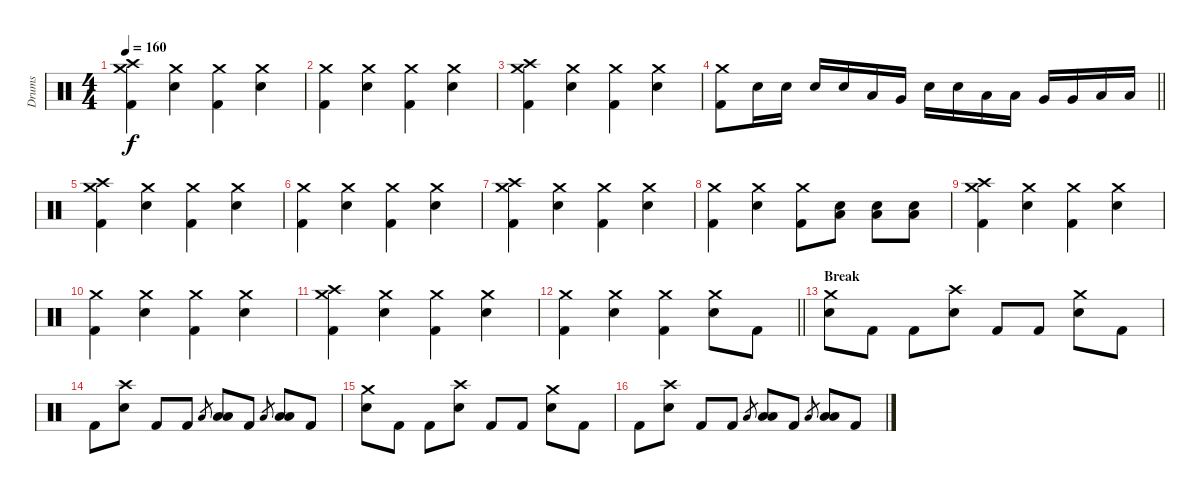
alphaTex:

\track ("Drums" "Drums") {instrument percussion}
\staff {score}
\articulation defaults
\ts (4 4)
\tempo 160
\clef neutral
\ks c
("Kick (hit) 2" "Crash medium (hit)" "Crash high (hit)").4{dy f} ("Electric Snare (hit)" "Crash medium (hit)").4 ("Kick (hit) 2" "Crash medium (hit)").4 ("Electric Snare (hit)" "Crash medium (hit)").4 |
("Kick (hit) 2" "Crash medium (hit)").4 ("Electric Snare (hit)" "Crash medium (hit)").4 ("Kick (hit) 2" "Crash medium (hit)").4 ("Electric Snare (hit)" "Crash medium (hit)").4 |
("Kick (hit) 2" "Crash medium (hit)" "Crash high (hit)").4 ("Electric Snare (hit)" "Crash medium (hit)").4 ("Kick (hit) 2" "Crash medium (hit)").4 ("Electric Snare (hit)" "Crash medium (hit)").4 |
\barLineRight lightlight
("Kick (hit) 2" "Crash medium (hit)").8 "Electric Snare (hit)".16 "Electric Snare (hit)".16 "Electric Snare (hit)".16 "Electric Snare (hit)".16 "Low Tom (hit)".16 "Very Low Tom (hit)".16 "Electric Snare (hit)".16 "Electric Snare (hit)".16 "Low Tom (hit)".16 "Low Tom (hit)".16 "Very Low Tom (hit)".16 "Very Low Tom (hit)".16 "Low Floor Tom (hit)".16 "Low Floor Tom (hit)".16 |
("Kick (hit) 2" "Crash medium (hit)" "Crash high (hit)").4 ("Electric Snare (hit)" "Crash medium (hit)").4 ("Kick (hit) 2" "Crash medium (hit)").4 ("Electric Snare (hit)" "Crash medium (hit)").4 |
("Kick (hit) 2" "Crash medium (hit)").4 ("Electric Snare (hit)" "Crash medium (hit)").4 ("Kick (hit) 2" "Crash medium (hit)").4 ("Electric Snare (hit)" "Crash medium (hit)").4 |
("Kick (hit) 2" "Crash medium (hit)" "Crash high (hit)").4 ("Electric Snare (hit)" "Crash medium (hit)").4 ("Kick (hit) 2" "Crash medium (hit)").4 ("Electric Snare (hit)" "Crash medium (hit)").4 |
("Kick (hit) 2" "Crash medium (hit)").4 ("Electric Snare (hit)" "Crash medium (hit)").4 ("Kick (hit) 2" "Crash medium (hit)").8 ("Electric Snare (hit)" "Low Floor Tom (hit)").8 ("Electric Snare (hit)" "Low Floor Tom (hit)").8 ("Electric Snare (hit)" "Low Floor Tom (hit)").8 |
("Kick (hit) 2" "Crash medium (hit)" "Crash high (hit)").4 ("Electric Snare (hit)" "Crash medium (hit)").4 ("Kick (hit) 2" "Crash medium (hit)").4 ("Electric Snare (hit)" "Crash medium (hit)").4 |
("Kick (hit) 2" "Crash medium (hit)").4 ("Electric Snare (hit)" "Crash medium (hit)").4 ("Kick (hit) 2" "Crash medium (hit)").4 ("Electric Snare (hit)" "Crash medium (hit)").4 |
("Kick (hit) 2" "Crash medium (hit)" "Crash high (hit)").4 ("Electric Snare (hit)" "Crash medium (hit)").4 ("Kick (hit) 2" "Crash medium (hit)").4 ("Electric Snare (hit)" "Crash medium (hit)").4 |
\barLineRight lightlight
("Kick (hit) 2" "Crash medium (hit)").4 ("Electric Snare (hit)" "Crash medium (hit)").4 ("Kick (hit) 2" "Crash medium (hit)").4 ("Electric Snare (hit)" "Crash medium (hit)").8 "Kick (hit) 2".8 |
\section ("" "Break")
("Electric Snare (hit)" "Crash medium (hit)").8 "Kick (hit) 2".8 "Kick (hit) 2".8 ("Electric Snare (hit)" "Crash high (hit)").8 "Kick (hit) 2".8 "Kick (hit) 2".8 ("Electric Snare (hit)" "Crash medium (hit)").8 "Kick (hit) 2".8 |
"Kick (hit) 2".8 ("Electric Snare (hit)" "Crash high (hit)").8 "Kick (hit) 2".8 "Kick (hit) 2".8 "Low Tom (hit)".8{gr} ("Low Tom (hit)" "Low Floor Tom (hit)").8 "Kick (hit) 2".8 "Low Tom (hit)".8{gr} ("Low Tom (hit)" "Low Floor Tom (hit)").8 "Kick (hit) 2".8 |
("Electric Snare (hit)" "Crash medium (hit)").8 "Kick (hit) 2".8 "Kick (hit) 2".8 ("Electric Snare (hit)" "Crash high (hit)").8 "Kick (hit) 2".8 "Kick (hit) 2".8 ("Electric Snare (hit)" "Crash medium (hit)").8 "Kick (hit) 2".8 |
"Kick (hit) 2".8 ("Electric Snare (hit)" "Crash high (hit)").8 "Kick (hit) 2".8 "Kick (hit) 2".8 "Low Tom (hit)".8{gr} ("Low Tom (hit)" "Low Floor Tom (hit)").8 "Kick (hit) 2".8 "Low Tom (hit)".8{gr} ("Low Tom (hit)" "Low Floor Tom (hit)").8 "Kick (hit) 2".8
